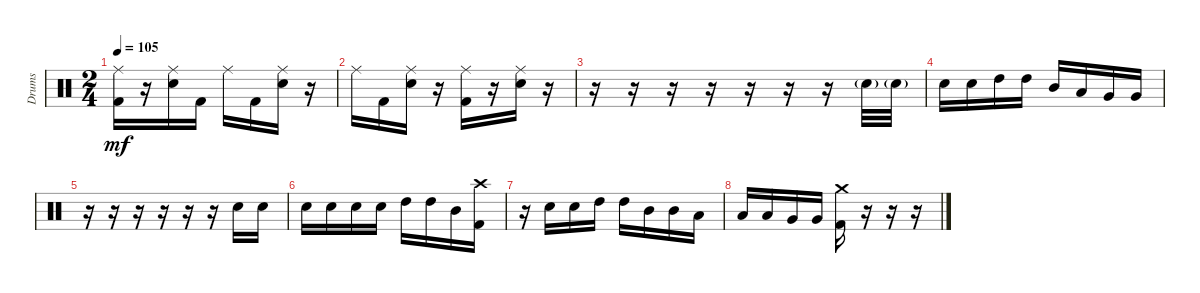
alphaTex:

\defaultSystemsLayout 4
\bracketExtendMode groupsimilarinstruments
\otherSystemsTrackNameOrientation horizontal
\track ("Godd" "Drums") {instrument percussion}
\staff {score}
\articulation defaults
\ts (2 4)
\tempo 105
\clef neutral
\ks c
("Kick (hit) 2" "Ride (middle)").16{dy mf} r.16 ("Snare (hit) 2" "Ride (middle)").16 "Kick (hit) 2".16 "Ride (middle)".16 "Kick (hit) 2".16 ("Snare (hit) 2" "Ride (middle)").16 r.16 |
"Ride (middle)".16 "Kick (hit) 2".16 ("Snare (hit) 2" "Ride (middle)").16 r.16 ("Kick (hit) 2" "Ride (middle)").16 r.16 ("Snare (hit) 2" "Ride (middle)").16 r.16 |
r.16 r.16 r.16 r.16 r.16 r.16 r.16 "Snare (hit) 2"{g}.32 "Snare (hit) 2"{g}.32 |
"Snare (hit) 2".16 "Snare (hit) 2".16 "High Tom (hit)".16 "High Tom (hit)".16 "Mid Tom (hit)".16 "Low Tom (hit)".16 "Very Low Tom (hit)".16 "Very Low Tom (hit)".16 |
r.16 r.16 r.16 r.16 r.16 r.16 "Snare (hit) 2".16 "Snare (hit) 2".16 |
"Snare (hit) 2".16 "Snare (hit) 2".16 "Snare (hit) 2".16 "Snare (hit) 2".16 "High Tom (hit)".16 "High Tom (hit)".16 "Mid Tom (hit)".16 ("Kick (hit) 2" "Crash high (hit)").16 |
r.16 "Snare (hit) 2".16 "Snare (hit) 2".16 "High Tom (hit)".16 "High Tom (hit)".16 "Mid Tom (hit)".16 "Mid Tom (hit)".16 "Low Tom (hit)".16 |
"Low Tom (hit)".16 "Low Tom (hit)".16 "Very Low Tom (hit)".16 "Very Low Tom (hit)".16 ("Kick (hit) 2" "Crash medium (hit)").16 r.16 r.16 r.16
